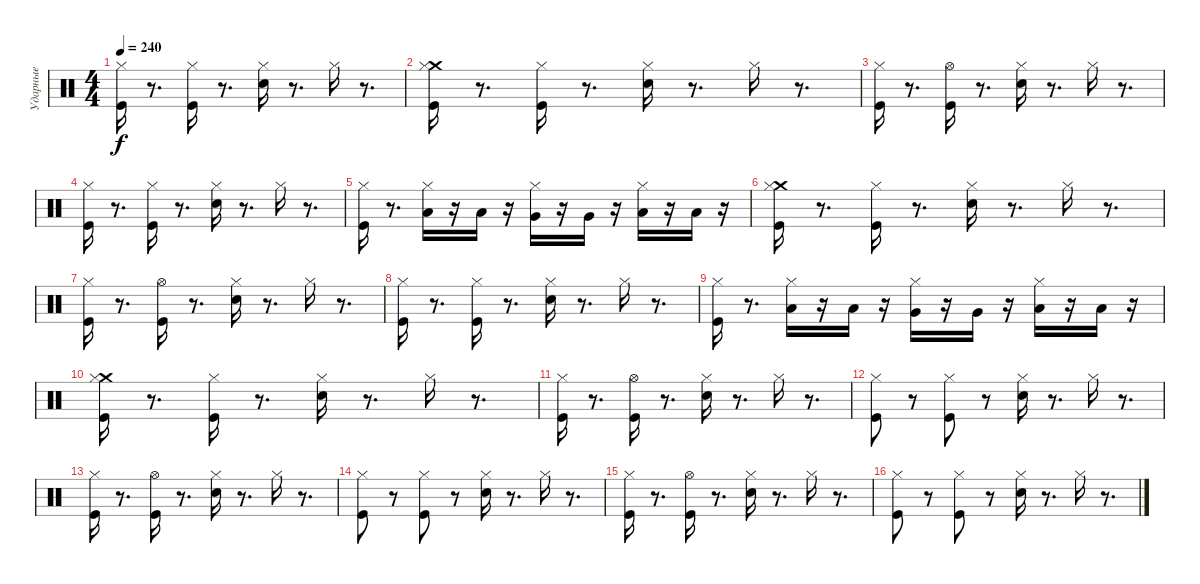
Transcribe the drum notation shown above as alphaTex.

\track ("Ударные" "Ударные") {instrument percussion}
\staff {score}
\articulation defaults
\ts (4 4)
\tempo 240
\clef neutral
\ks c
("Kick (hit)" "Hi-Hat (closed)").16{dy f} r.8{d} ("Kick (hit)" "Hi-Hat (closed)").16 r.8{d} ("Snare (hit) 2" "Hi-Hat (closed)").16 r.8{d} "Hi-Hat (closed)".16 r.8{d} |
("Kick (hit)" "Crash medium (hit)" "Hi-Hat (closed)").16 r.8{d} ("Kick (hit)" "Hi-Hat (closed)").16 r.8{d} ("Snare (hit) 2" "Hi-Hat (closed)").16 r.8{d} "Hi-Hat (closed)".16 r.8{d} |
("Kick (hit)" "Hi-Hat (closed)").16 r.8{d} ("Kick (hit)" "Hi-Hat (open)").16 r.8{d} ("Snare (hit) 2" "Hi-Hat (closed)").16 r.8{d} "Hi-Hat (closed)".16 r.8{d} |
("Kick (hit)" "Hi-Hat (closed)").16 r.8{d} ("Kick (hit)" "Hi-Hat (closed)").16 r.8{d} ("Snare (hit) 2" "Hi-Hat (closed)").16 r.8{d} "Hi-Hat (closed)".16 r.8{d} |
("Kick (hit)" "Hi-Hat (closed)").16 r.8{d} ("Low Floor Tom (hit)" "Hi-Hat (closed)").16 r.16 "Low Floor Tom (hit)".16 r.16 ("Very Low Tom (hit)" "Hi-Hat (closed)").16 r.16 "Very Low Tom (hit)".16 r.16 ("Low Tom (hit)" "Hi-Hat (closed)").16 r.16 "Low Tom (hit)".16 r.16 |
("Kick (hit)" "Crash medium (hit)" "Hi-Hat (closed)").16 r.8{d} ("Kick (hit)" "Hi-Hat (closed)").16 r.8{d} ("Snare (hit) 2" "Hi-Hat (closed)").16 r.8{d} "Hi-Hat (closed)".16 r.8{d} |
("Kick (hit)" "Hi-Hat (closed)").16 r.8{d} ("Kick (hit)" "Hi-Hat (open)").16 r.8{d} ("Snare (hit) 2" "Hi-Hat (closed)").16 r.8{d} "Hi-Hat (closed)".16 r.8{d} |
("Kick (hit)" "Hi-Hat (closed)").16 r.8{d} ("Kick (hit)" "Hi-Hat (closed)").16 r.8{d} ("Snare (hit) 2" "Hi-Hat (closed)").16 r.8{d} "Hi-Hat (closed)".16 r.8{d} |
("Kick (hit)" "Hi-Hat (closed)").16 r.8{d} ("Low Floor Tom (hit)" "Hi-Hat (closed)").16 r.16 "Low Floor Tom (hit)".16 r.16 ("Very Low Tom (hit)" "Hi-Hat (closed)").16 r.16 "Very Low Tom (hit)".16 r.16 ("Low Tom (hit)" "Hi-Hat (closed)").16 r.16 "Low Tom (hit)".16 r.16 |
("Kick (hit)" "Crash medium (hit)" "Hi-Hat (closed)").16 r.8{d} ("Kick (hit)" "Hi-Hat (closed)").16 r.8{d} ("Snare (hit) 2" "Hi-Hat (closed)").16 r.8{d} "Hi-Hat (closed)".16 r.8{d} |
("Kick (hit)" "Hi-Hat (closed)").16 r.8{d} ("Kick (hit)" "Hi-Hat (open)").16 r.8{d} ("Snare (hit) 2" "Hi-Hat (closed)").16 r.8{d} "Hi-Hat (closed)".16 r.8{d} |
("Hi-Hat (closed)" "Kick (hit)").8 r.8 ("Kick (hit)" "Hi-Hat (closed)").8 r.8 ("Snare (hit) 2" "Hi-Hat (closed)").16 r.8{d} "Hi-Hat (closed)".16 r.8{d} |
("Kick (hit)" "Hi-Hat (closed)").16 r.8{d} ("Kick (hit)" "Hi-Hat (open)").16 r.8{d} ("Snare (hit) 2" "Hi-Hat (closed)").16 r.8{d} "Hi-Hat (closed)".16 r.8{d} |
("Hi-Hat (closed)" "Kick (hit)").8 r.8 ("Kick (hit)" "Hi-Hat (closed)").8 r.8 ("Snare (hit) 2" "Hi-Hat (closed)").16 r.8{d} "Hi-Hat (closed)".16 r.8{d} |
("Kick (hit)" "Hi-Hat (closed)").16 r.8{d} ("Kick (hit)" "Hi-Hat (open)").16 r.8{d} ("Snare (hit) 2" "Hi-Hat (closed)").16 r.8{d} "Hi-Hat (closed)".16 r.8{d} |
("Hi-Hat (closed)" "Kick (hit)").8 r.8 ("Kick (hit)" "Hi-Hat (closed)").8 r.8 ("Snare (hit) 2" "Hi-Hat (closed)").16 r.8{d} "Hi-Hat (closed)".16 r.8{d}
